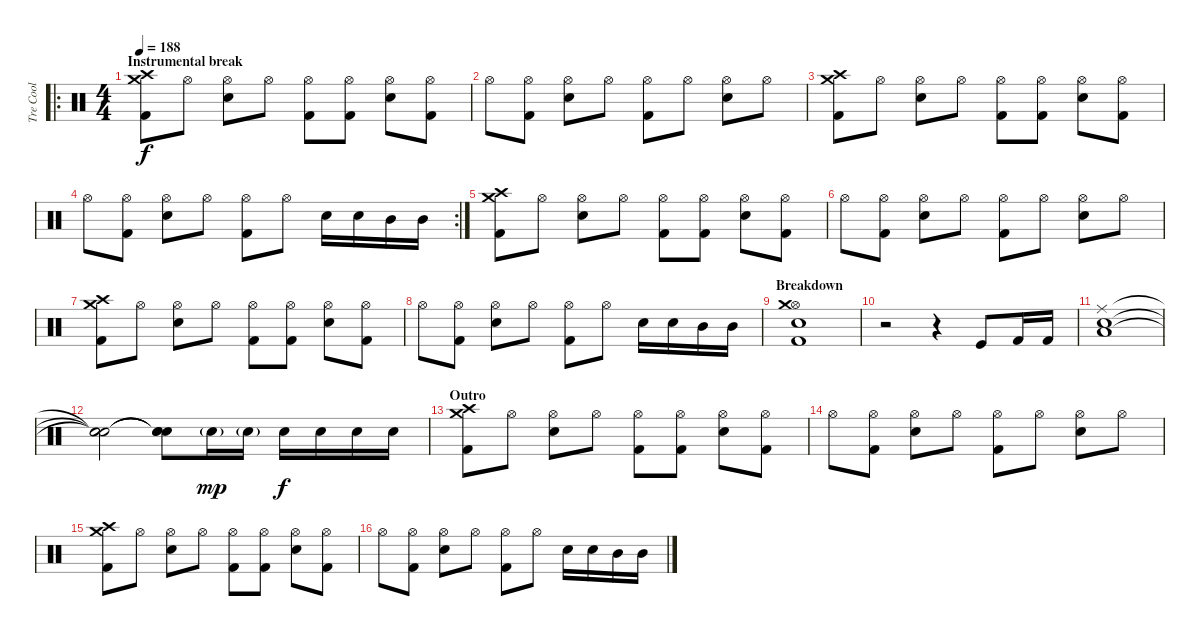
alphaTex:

\track ("Tre Cool" "Tre Cool") {instrument percussion}
\staff {score}
\articulation defaults
\ro
\ts (4 4)
\section ("" "Instrumental break")
\tempo 188
\clef neutral
\ks c
("Crash high (hit)" "Crash medium (hit)" "Kick (hit) 2").8{dy f} "Hi-Hat (open)".8 ("Hi-Hat (open)" "Electric Snare (hit)").8 "Hi-Hat (open)".8 ("Hi-Hat (open)" "Kick (hit) 2").8 ("Hi-Hat (open)" "Kick (hit) 2").8 ("Hi-Hat (open)" "Electric Snare (hit)").8 ("Hi-Hat (open)" "Kick (hit) 2").8 |
"Hi-Hat (open)".8 ("Hi-Hat (open)" "Kick (hit) 2").8 ("Hi-Hat (open)" "Electric Snare (hit)").8 "Hi-Hat (open)".8 ("Hi-Hat (open)" "Kick (hit) 2").8 "Hi-Hat (open)".8 ("Hi-Hat (open)" "Electric Snare (hit)").8 "Hi-Hat (open)".8 |
("Crash high (hit)" "Crash medium (hit)" "Kick (hit) 2").8 "Hi-Hat (open)".8 ("Hi-Hat (open)" "Electric Snare (hit)").8 "Hi-Hat (open)".8 ("Hi-Hat (open)" "Kick (hit) 2").8 ("Hi-Hat (open)" "Kick (hit) 2").8 ("Hi-Hat (open)" "Electric Snare (hit)").8 ("Hi-Hat (open)" "Kick (hit) 2").8 |
\rc 2 "Hi-Hat (open)".8
("Hi-Hat (open)" "Kick (hit) 2").8 ("Hi-Hat (open)" "Electric Snare (hit)").8 "Hi-Hat (open)".8 ("Hi-Hat (open)" "Kick (hit) 2").8 "Hi-Hat (open)".8 "Electric Snare (hit)".16 "Electric Snare (hit)".16 "Mid Tom (hit)".16 "Mid Tom (hit)".16 |
("Crash high (hit)" "Crash medium (hit)" "Kick (hit) 2").8 "Hi-Hat (open)".8 ("Hi-Hat (open)" "Electric Snare (hit)").8 "Hi-Hat (open)".8 ("Hi-Hat (open)" "Kick (hit) 2").8 ("Hi-Hat (open)" "Kick (hit) 2").8 ("Hi-Hat (open)" "Electric Snare (hit)").8 ("Hi-Hat (open)" "Kick (hit) 2").8 |
"Hi-Hat (open)".8 ("Hi-Hat (open)" "Kick (hit) 2").8 ("Hi-Hat (open)" "Electric Snare (hit)").8 "Hi-Hat (open)".8 ("Hi-Hat (open)" "Kick (hit) 2").8 "Hi-Hat (open)".8 ("Hi-Hat (open)" "Electric Snare (hit)").8 "Hi-Hat (open)".8 |
("Crash high (hit)" "Crash medium (hit)" "Kick (hit) 2").8 "Hi-Hat (open)".8 ("Hi-Hat (open)" "Electric Snare (hit)").8 "Hi-Hat (open)".8 ("Hi-Hat (open)" "Kick (hit) 2").8 ("Hi-Hat (open)" "Kick (hit) 2").8 ("Hi-Hat (open)" "Electric Snare (hit)").8 ("Hi-Hat (open)" "Kick (hit) 2").8 |
"Hi-Hat (open)".8 ("Hi-Hat (open)" "Kick (hit) 2").8 ("Hi-Hat (open)" "Electric Snare (hit)").8 "Hi-Hat (open)".8 ("Hi-Hat (open)" "Kick (hit) 2").8 "Hi-Hat (open)".8 "Electric Snare (hit)".16 "Electric Snare (hit)".16 "Mid Tom (hit)".16 "Mid Tom (hit)".16 |
\section ("" "Breakdown")
("Hi-Hat (open)" "Crash medium (hit)" "Kick (hit) 2" "Electric Snare (hit)").1 |
r.2 r.4 "Kick (hit)".8 "Kick (hit) 2".16 "Kick (hit) 2".16 |
("Ride (middle)" "Low Floor Tom (hit)" "Electric Snare (hit)").1 |
("Snare (hit)"{t} "Snare (hit)"{t} "Snare (hit)"{t}).2 ("Snare (hit)"{t} "Snare (hit)"{t} "Snare (hit)"{t}).8 "Electric Snare (hit)"{g}.16{dy mp} "Electric Snare (hit)"{g}.16 "Electric Snare (hit)".16{dy f} "Electric Snare (hit)".16 "Electric Snare (hit)".16 "Electric Snare (hit)".16 |
\section ("" "Outro")
("Crash high (hit)" "Crash medium (hit)" "Kick (hit) 2").8 "Hi-Hat (open)".8 ("Hi-Hat (open)" "Electric Snare (hit)").8 "Hi-Hat (open)".8 ("Hi-Hat (open)" "Kick (hit) 2").8 ("Hi-Hat (open)" "Kick (hit) 2").8 ("Hi-Hat (open)" "Electric Snare (hit)").8 ("Hi-Hat (open)" "Kick (hit) 2").8 |
"Hi-Hat (open)".8 ("Hi-Hat (open)" "Kick (hit) 2").8 ("Hi-Hat (open)" "Electric Snare (hit)").8 "Hi-Hat (open)".8 ("Hi-Hat (open)" "Kick (hit) 2").8 "Hi-Hat (open)".8 ("Hi-Hat (open)" "Electric Snare (hit)").8 "Hi-Hat (open)".8 |
("Crash high (hit)" "Crash medium (hit)" "Kick (hit) 2").8 "Hi-Hat (open)".8 ("Hi-Hat (open)" "Electric Snare (hit)").8 "Hi-Hat (open)".8 ("Hi-Hat (open)" "Kick (hit) 2").8 ("Hi-Hat (open)" "Kick (hit) 2").8 ("Hi-Hat (open)" "Electric Snare (hit)").8 ("Hi-Hat (open)" "Kick (hit) 2").8 |
"Hi-Hat (open)".8 ("Hi-Hat (open)" "Kick (hit) 2").8 ("Hi-Hat (open)" "Electric Snare (hit)").8 "Hi-Hat (open)".8 ("Hi-Hat (open)" "Kick (hit) 2").8 "Hi-Hat (open)".8 "Electric Snare (hit)".16 "Electric Snare (hit)".16 "Mid Tom (hit)".16 "Mid Tom (hit)".16
